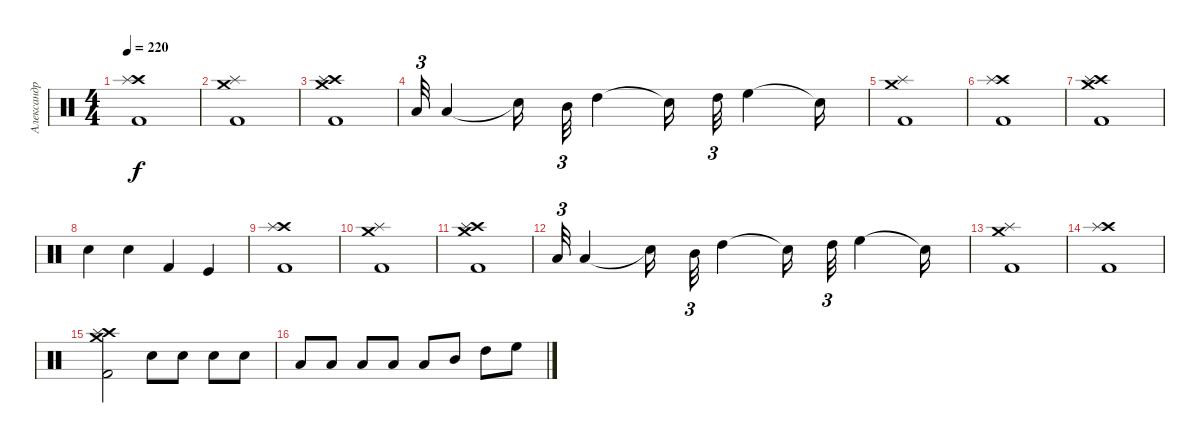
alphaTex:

\track ("Александр Карпухин" "Александр ") {instrument percussion}
\staff {score}
\articulation defaults
\ts (4 4)
\tempo 220
\clef neutral
\ks c
("Crash high (hit)" "Splash (hit)" "Kick (hit) 2").1{dy f} |
("Crash medium (hit)" "Splash (hit)" "Kick (hit) 2").1 |
("Crash high (hit)" "Crash medium (hit)" "Splash (hit)" "Kick (hit) 2").1 |
"Low Floor Tom (hit)".32{tu (3 2)} "Low Tom (hit)".4 "Snare (hit)"{t}.16 "Mid Tom (hit)".32{tu (3 2)} "High Tom (hit)".4 "Snare (hit)"{t}.16 "High Tom (hit)".32{tu (3 2)} "High Floor Tom (hit)".4 "Snare (hit)"{t}.16 |
("Crash medium (hit)" "Splash (hit)" "Kick (hit) 2").1 |
("Crash high (hit)" "Splash (hit)" "Kick (hit) 2").1 |
("Crash high (hit)" "Crash medium (hit)" "Splash (hit)" "Kick (hit) 2").1 |
"Snare (hit) 2".4 "Snare (hit) 2".4 "Kick (hit) 2".4 "Kick (hit)".4 |
("Crash high (hit)" "Splash (hit)" "Kick (hit) 2").1 |
("Crash medium (hit)" "Splash (hit)" "Kick (hit) 2").1 |
("Crash high (hit)" "Crash medium (hit)" "Splash (hit)" "Kick (hit) 2").1 |
"Low Floor Tom (hit)".32{tu (3 2)} "Low Tom (hit)".4 "Snare (hit)"{t}.16 "Mid Tom (hit)".32{tu (3 2)} "High Tom (hit)".4 "Snare (hit)"{t}.16 "High Tom (hit)".32{tu (3 2)} "High Floor Tom (hit)".4 "Snare (hit)"{t}.16 |
("Crash medium (hit)" "Splash (hit)" "Kick (hit) 2").1 |
("Crash high (hit)" "Splash (hit)" "Kick (hit) 2").1 |
("Crash high (hit)" "Crash medium (hit)" "Splash (hit)" "Kick (hit) 2").2 "Snare (hit) 2".8 "Snare (hit) 2".8 "Snare (hit) 2".8 "Snare (hit) 2".8 |
"Low Floor Tom (hit)".8 "Low Floor Tom (hit)".8 "Low Floor Tom (hit)".8 "Low Floor Tom (hit)".8 "Low Tom (hit)".8 "Mid Tom (hit)".8 "High Tom (hit)".8 "High Floor Tom (hit)".8
